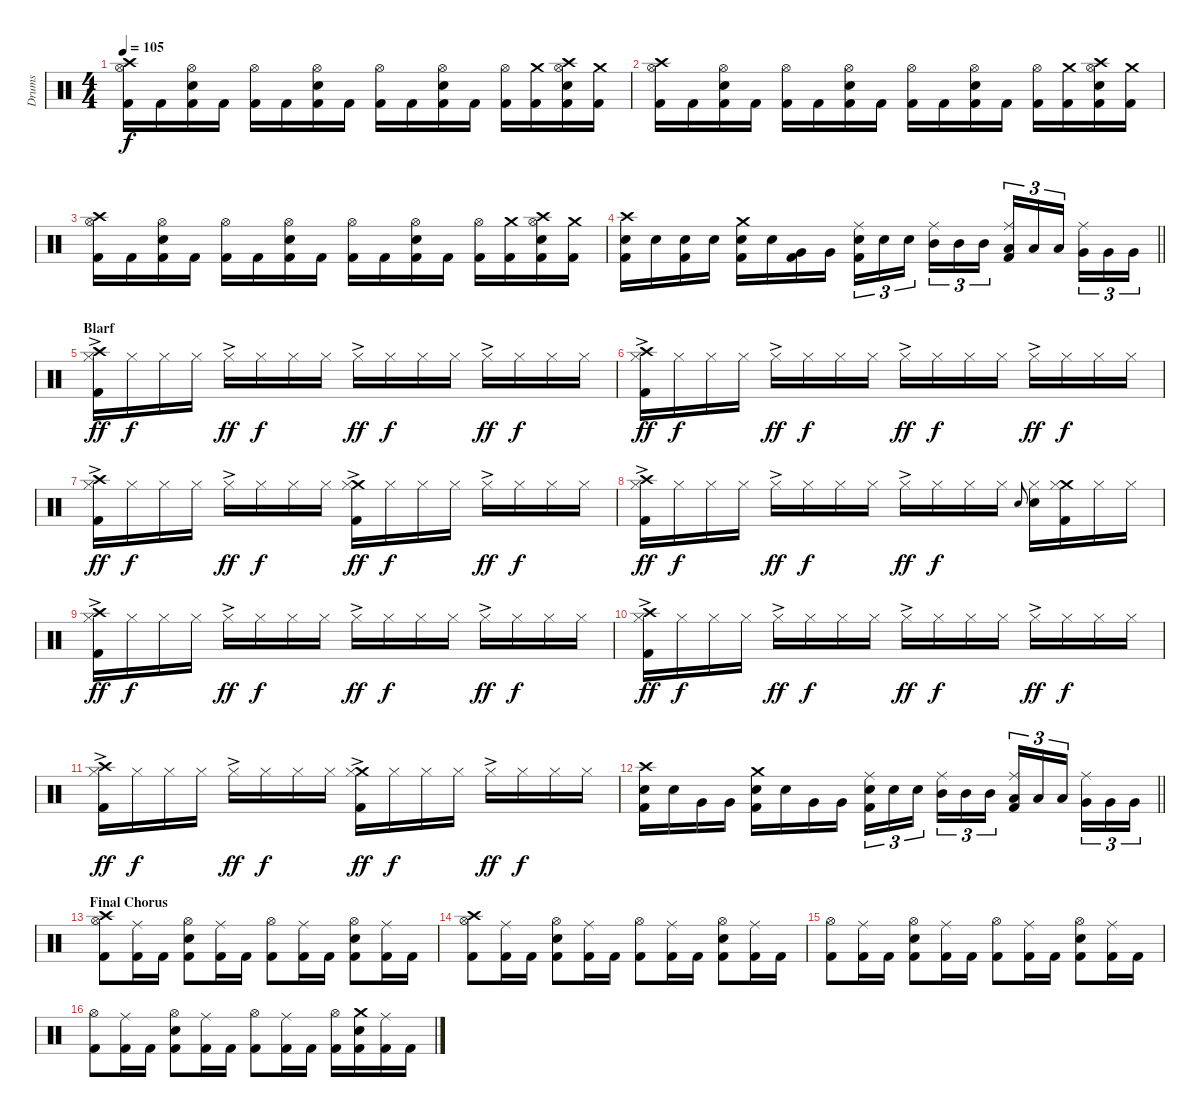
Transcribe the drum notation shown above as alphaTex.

\track ("Drums" "Drums") {instrument percussion}
\staff {score}
\articulation defaults
\ts (4 4)
\tempo 105
\clef neutral
\ks c
("Crash high (hit)" "Hi-Hat (open)" "Kick (hit) 2").16{dy f} "Kick (hit) 2".16 ("Hi-Hat (open)" "Snare (hit) 2" "Kick (hit) 2").16 "Kick (hit) 2".16 ("Hi-Hat (open)" "Kick (hit) 2").16 "Kick (hit) 2".16 ("Hi-Hat (open)" "Snare (hit) 2" "Kick (hit) 2").16 "Kick (hit) 2".16 ("Hi-Hat (open)" "Kick (hit) 2").16 "Kick (hit) 2".16 ("Hi-Hat (open)" "Snare (hit) 2" "Kick (hit) 2").16 "Kick (hit) 2".16 ("Hi-Hat (open)" "Kick (hit) 2").16 ("Crash medium (hit)" "Kick (hit) 2").16 ("Crash high (hit)" "Hi-Hat (open)" "Snare (hit) 2" "Kick (hit) 2").16 ("Crash medium (hit)" "Kick (hit) 2").16 |
("Crash high (hit)" "Hi-Hat (open)" "Kick (hit) 2").16 "Kick (hit) 2".16 ("Hi-Hat (open)" "Snare (hit) 2" "Kick (hit) 2").16 "Kick (hit) 2".16 ("Hi-Hat (open)" "Kick (hit) 2").16 "Kick (hit) 2".16 ("Hi-Hat (open)" "Snare (hit) 2" "Kick (hit) 2").16 "Kick (hit) 2".16 ("Hi-Hat (open)" "Kick (hit) 2").16 "Kick (hit) 2".16 ("Hi-Hat (open)" "Snare (hit) 2" "Kick (hit) 2").16 "Kick (hit) 2".16 ("Hi-Hat (open)" "Kick (hit) 2").16 ("Crash medium (hit)" "Kick (hit) 2").16 ("Crash high (hit)" "Hi-Hat (open)" "Snare (hit) 2" "Kick (hit) 2").16 ("Crash medium (hit)" "Kick (hit) 2").16 |
("Crash high (hit)" "Hi-Hat (open)" "Kick (hit) 2").16 "Kick (hit) 2".16 ("Hi-Hat (open)" "Snare (hit) 2" "Kick (hit) 2").16 "Kick (hit) 2".16 ("Hi-Hat (open)" "Kick (hit) 2").16 "Kick (hit) 2".16 ("Hi-Hat (open)" "Snare (hit) 2" "Kick (hit) 2").16 "Kick (hit) 2".16 ("Hi-Hat (open)" "Kick (hit) 2").16 "Kick (hit) 2".16 ("Hi-Hat (open)" "Snare (hit) 2" "Kick (hit) 2").16 "Kick (hit) 2".16 ("Hi-Hat (open)" "Kick (hit) 2").16 ("Crash medium (hit)" "Kick (hit) 2").16 ("Crash high (hit)" "Hi-Hat (open)" "Snare (hit) 2" "Kick (hit) 2").16 ("Crash medium (hit)" "Kick (hit) 2").16 |
\barLineRight lightlight
("Crash high (hit)" "Snare (hit) 2" "Kick (hit) 2").16 "Snare (hit) 2".16 ("Snare (hit) 2" "Kick (hit) 2").16 "Snare (hit) 2".16 ("Crash medium (hit)" "Snare (hit) 2" "Kick (hit) 2").16 "Snare (hit) 2".16 ("Very Low Tom (hit)" "Kick (hit) 2").16 "Very Low Tom (hit)".16 ("Ride (middle)" "Snare (hit) 2" "Kick (hit) 2").16{tu (3 2)} "Snare (hit) 2".16{tu (3 2)} "Snare (hit) 2".16{tu (3 2) beam splitsecondary} ("Ride (middle)" "Mid Tom (hit)").16{tu (3 2)} "Mid Tom (hit)".16{tu (3 2)} "Mid Tom (hit)".16{tu (3 2)} ("Ride (middle)" "Low Tom (hit)" "Kick (hit) 2").16{tu (3 2)} "Low Tom (hit)".16{tu (3 2)} "Low Tom (hit)".16{tu (3 2) beam splitsecondary} ("Ride (middle)" "Very Low Tom (hit)").16{tu (3 2)} "Very Low Tom (hit)".16{tu (3 2)} "Very Low Tom (hit)".16{tu (3 2)} |
\section ("" "Blarf")
("Crash high (hit)" "Hi-Hat (closed)"{ac} "Kick (hit) 2").16{dy ff} "Hi-Hat (closed)".16{dy f} "Hi-Hat (closed)".16 "Hi-Hat (closed)".16 "Hi-Hat (closed)"{ac}.16{dy ff} "Hi-Hat (closed)".16{dy f} "Hi-Hat (closed)".16 "Hi-Hat (closed)".16 "Hi-Hat (closed)"{ac}.16{dy ff} "Hi-Hat (closed)".16{dy f} "Hi-Hat (closed)".16 "Hi-Hat (closed)".16 "Hi-Hat (closed)"{ac}.16{dy ff} "Hi-Hat (closed)".16{dy f} "Hi-Hat (closed)".16 "Hi-Hat (closed)".16 |
("Crash high (hit)" "Hi-Hat (closed)"{ac} "Kick (hit) 2").16{dy ff} "Hi-Hat (closed)".16{dy f} "Hi-Hat (closed)".16 "Hi-Hat (closed)".16 "Hi-Hat (closed)"{ac}.16{dy ff} "Hi-Hat (closed)".16{dy f} "Hi-Hat (closed)".16 "Hi-Hat (closed)".16 "Hi-Hat (closed)"{ac}.16{dy ff} "Hi-Hat (closed)".16{dy f} "Hi-Hat (closed)".16 "Hi-Hat (closed)".16 "Hi-Hat (closed)"{ac}.16{dy ff} "Hi-Hat (closed)".16{dy f} "Hi-Hat (closed)".16 "Hi-Hat (closed)".16 |
("Crash high (hit)" "Hi-Hat (closed)"{ac} "Kick (hit) 2").16{dy ff} "Hi-Hat (closed)".16{dy f} "Hi-Hat (closed)".16 "Hi-Hat (closed)".16 "Hi-Hat (closed)"{ac}.16{dy ff} "Hi-Hat (closed)".16{dy f} "Hi-Hat (closed)".16 "Hi-Hat (closed)".16 ("Crash medium (hit)" "Hi-Hat (closed)"{ac} "Kick (hit) 2").16{dy ff} "Hi-Hat (closed)".16{dy f} "Hi-Hat (closed)".16 "Hi-Hat (closed)".16 "Hi-Hat (closed)"{ac}.16{dy ff} "Hi-Hat (closed)".16{dy f} "Hi-Hat (closed)".16 "Hi-Hat (closed)".16 |
("Crash high (hit)" "Hi-Hat (closed)"{ac} "Kick (hit) 2").16{dy ff} "Hi-Hat (closed)".16{dy f} "Hi-Hat (closed)".16 "Hi-Hat (closed)".16 "Hi-Hat (closed)"{ac}.16{dy ff} "Hi-Hat (closed)".16{dy f} "Hi-Hat (closed)".16 "Hi-Hat (closed)".16 "Hi-Hat (closed)"{ac}.16{dy ff} "Hi-Hat (closed)".16{dy f} "Hi-Hat (closed)".16 "Hi-Hat (closed)".16 "Snare (hit) 2".8{gr onbeat} ("Hi-Hat (closed)" "Snare (hit) 2").16 ("Crash medium (hit)" "Hi-Hat (closed)" "Kick (hit) 2").16 "Hi-Hat (closed)".16 "Hi-Hat (closed)".16 |
("Crash high (hit)" "Hi-Hat (closed)"{ac} "Kick (hit) 2").16{dy ff} "Hi-Hat (closed)".16{dy f} "Hi-Hat (closed)".16 "Hi-Hat (closed)".16 "Hi-Hat (closed)"{ac}.16{dy ff} "Hi-Hat (closed)".16{dy f} "Hi-Hat (closed)".16 "Hi-Hat (closed)".16 "Hi-Hat (closed)"{ac}.16{dy ff} "Hi-Hat (closed)".16{dy f} "Hi-Hat (closed)".16 "Hi-Hat (closed)".16 "Hi-Hat (closed)"{ac}.16{dy ff} "Hi-Hat (closed)".16{dy f} "Hi-Hat (closed)".16 "Hi-Hat (closed)".16 |
("Crash high (hit)" "Hi-Hat (closed)"{ac} "Kick (hit) 2").16{dy ff} "Hi-Hat (closed)".16{dy f} "Hi-Hat (closed)".16 "Hi-Hat (closed)".16 "Hi-Hat (closed)"{ac}.16{dy ff} "Hi-Hat (closed)".16{dy f} "Hi-Hat (closed)".16 "Hi-Hat (closed)".16 "Hi-Hat (closed)"{ac}.16{dy ff} "Hi-Hat (closed)".16{dy f} "Hi-Hat (closed)".16 "Hi-Hat (closed)".16 "Hi-Hat (closed)"{ac}.16{dy ff} "Hi-Hat (closed)".16{dy f} "Hi-Hat (closed)".16 "Hi-Hat (closed)".16 |
("Crash high (hit)" "Hi-Hat (closed)"{ac} "Kick (hit) 2").16{dy ff} "Hi-Hat (closed)".16{dy f} "Hi-Hat (closed)".16 "Hi-Hat (closed)".16 "Hi-Hat (closed)"{ac}.16{dy ff} "Hi-Hat (closed)".16{dy f} "Hi-Hat (closed)".16 "Hi-Hat (closed)".16 ("Crash medium (hit)" "Hi-Hat (closed)"{ac} "Kick (hit) 2").16{dy ff} "Hi-Hat (closed)".16{dy f} "Hi-Hat (closed)".16 "Hi-Hat (closed)".16 "Hi-Hat (closed)"{ac}.16{dy ff} "Hi-Hat (closed)".16{dy f} "Hi-Hat (closed)".16 "Hi-Hat (closed)".16 |
\barLineRight lightlight
("Crash high (hit)" "Snare (hit) 2" "Kick (hit) 2").16 "Snare (hit) 2".16 "Very Low Tom (hit)".16 "Very Low Tom (hit)".16 ("Crash medium (hit)" "Snare (hit) 2" "Kick (hit) 2").16 "Snare (hit) 2".16 "Very Low Tom (hit)".16 "Very Low Tom (hit)".16 ("Ride (middle)" "Snare (hit) 2" "Kick (hit) 2").16{tu (3 2)} "Snare (hit) 2".16{tu (3 2)} "Snare (hit) 2".16{tu (3 2) beam splitsecondary} ("Ride (middle)" "Mid Tom (hit)").16{tu (3 2)} "Mid Tom (hit)".16{tu (3 2)} "Mid Tom (hit)".16{tu (3 2)} ("Ride (middle)" "Low Tom (hit)" "Kick (hit) 2").16{tu (3 2)} "Low Tom (hit)".16{tu (3 2)} "Low Tom (hit)".16{tu (3 2) beam splitsecondary} ("Ride (middle)" "Very Low Tom (hit)").16{tu (3 2)} "Very Low Tom (hit)".16{tu (3 2)} "Very Low Tom (hit)".16{tu (3 2)} |
\section ("" "Final Chorus")
("Crash high (hit)" "Hi-Hat (open)" "Kick (hit) 2").8 ("Ride (middle)" "Kick (hit) 2").16 "Kick (hit) 2".16 ("Hi-Hat (open)" "Snare (hit) 2" "Kick (hit) 2").8 ("Ride (middle)" "Kick (hit) 2").16 "Kick (hit) 2".16 ("Hi-Hat (open)" "Kick (hit) 2").8 ("Ride (middle)" "Kick (hit) 2").16 "Kick (hit) 2".16 ("Hi-Hat (open)" "Snare (hit) 2" "Kick (hit) 2").8 ("Ride (middle)" "Kick (hit) 2").16 "Kick (hit) 2".16 |
("Crash high (hit)" "Hi-Hat (open)" "Kick (hit) 2").8 ("Ride (middle)" "Kick (hit) 2").16 "Kick (hit) 2".16 ("Hi-Hat (open)" "Snare (hit) 2" "Kick (hit) 2").8 ("Ride (middle)" "Kick (hit) 2").16 "Kick (hit) 2".16 ("Hi-Hat (open)" "Kick (hit) 2").8 ("Ride (middle)" "Kick (hit) 2").16 "Kick (hit) 2".16 ("Hi-Hat (open)" "Snare (hit) 2" "Kick (hit) 2").8 ("Ride (middle)" "Kick (hit) 2").16 "Kick (hit) 2".16 |
("Hi-Hat (open)" "Kick (hit) 2").8 ("Ride (middle)" "Kick (hit) 2").16 "Kick (hit) 2".16 ("Hi-Hat (open)" "Snare (hit) 2" "Kick (hit) 2").8 ("Ride (middle)" "Kick (hit) 2").16 "Kick (hit) 2".16 ("Hi-Hat (open)" "Kick (hit) 2").8 ("Ride (middle)" "Kick (hit) 2").16 "Kick (hit) 2".16 ("Hi-Hat (open)" "Snare (hit) 2" "Kick (hit) 2").8 ("Ride (middle)" "Kick (hit) 2").16 "Kick (hit) 2".16 |
("Hi-Hat (open)" "Kick (hit) 2").8 ("Ride (middle)" "Kick (hit) 2").16 "Kick (hit) 2".16 ("Hi-Hat (open)" "Snare (hit) 2" "Kick (hit) 2").8 ("Ride (middle)" "Kick (hit) 2").16 "Kick (hit) 2".16 ("Hi-Hat (open)" "Kick (hit) 2").8 ("Ride (middle)" "Kick (hit) 2").16 "Kick (hit) 2".16 ("Hi-Hat (open)" "Kick (hit) 2").16 ("Crash medium (hit)" "Snare (hit) 2" "Kick (hit) 2").16 ("Ride (middle)" "Kick (hit) 2").16 "Kick (hit) 2".16
